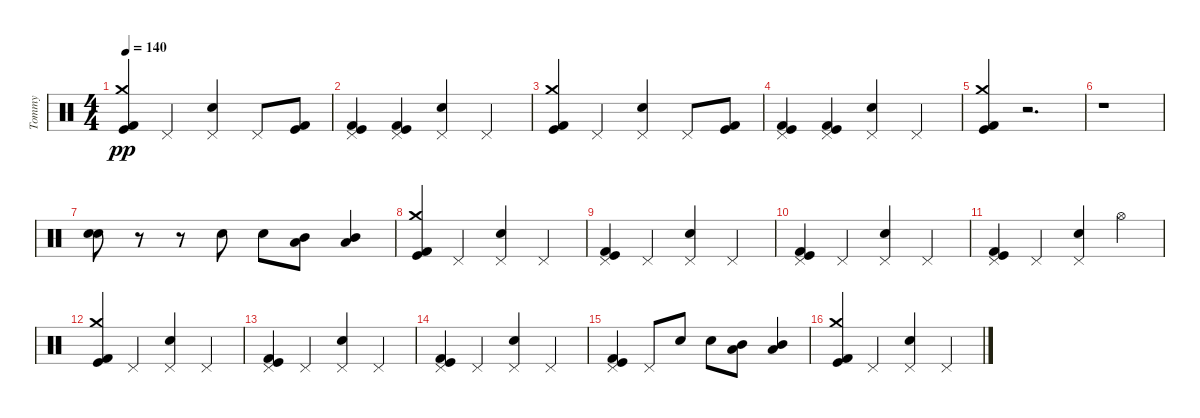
\track ("Tommy" "Tommy") {instrument percussion}
\staff {score}
\articulation defaults
\ts (4 4)
\tempo 140
\clef neutral
\ks c
("Kick (hit)" "Crash medium (hit)" "Kick (hit) 2").4{dy pp} "Pedal Hi-Hat (hit)".4 ("Pedal Hi-Hat (hit)" "Snare (hit) 2").4 "Pedal Hi-Hat (hit)".8 ("Kick (hit)" "Kick (hit) 2").8 |
("Pedal Hi-Hat (hit)" "Kick (hit)" "Kick (hit) 2").4 ("Pedal Hi-Hat (hit)" "Kick (hit)" "Kick (hit) 2").4 ("Snare (hit) 2" "Pedal Hi-Hat (hit)").4 "Pedal Hi-Hat (hit)".4 |
("Kick (hit)" "Crash medium (hit)" "Kick (hit) 2").4 "Pedal Hi-Hat (hit)".4 ("Pedal Hi-Hat (hit)" "Snare (hit) 2").4 "Pedal Hi-Hat (hit)".8 ("Kick (hit)" "Kick (hit) 2").8 |
("Pedal Hi-Hat (hit)" "Kick (hit)" "Kick (hit) 2").4 ("Pedal Hi-Hat (hit)" "Kick (hit)" "Kick (hit) 2").4 ("Snare (hit) 2" "Pedal Hi-Hat (hit)").4 "Pedal Hi-Hat (hit)".4 |
("Crash medium (hit)" "Kick (hit)" "Kick (hit) 2").4 r.2{d} |
r.1 |
("Snare (hit) 2" "Snare (hit) 2").8 r.8 r.8 "Snare (hit) 2".8 "Snare (hit) 2".8 ("Mid Tom (hit)" "Low Tom (hit)").8 ("Low Tom (hit)" "Mid Tom (hit)").4 |
("Kick (hit) 2" "Kick (hit)" "Crash medium (hit)").4 "Pedal Hi-Hat (hit)".4 ("Pedal Hi-Hat (hit)" "Snare (hit) 2").4 "Pedal Hi-Hat (hit)".4 |
("Pedal Hi-Hat (hit)" "Kick (hit) 2" "Kick (hit)").4 "Pedal Hi-Hat (hit)".4 ("Pedal Hi-Hat (hit)" "Snare (hit) 2").4 "Pedal Hi-Hat (hit)".4 |
("Pedal Hi-Hat (hit)" "Kick (hit) 2" "Kick (hit)").4 "Pedal Hi-Hat (hit)".4 ("Pedal Hi-Hat (hit)" "Snare (hit) 2").4 "Pedal Hi-Hat (hit)".4 |
("Pedal Hi-Hat (hit)" "Kick (hit) 2" "Kick (hit)").4 "Pedal Hi-Hat (hit)".4 ("Pedal Hi-Hat (hit)" "Snare (hit) 2").4 "Hi-Hat (open)".4 |
("Kick (hit) 2" "Kick (hit)" "Crash medium (hit)").4 "Pedal Hi-Hat (hit)".4 ("Pedal Hi-Hat (hit)" "Snare (hit) 2").4 "Pedal Hi-Hat (hit)".4 |
("Pedal Hi-Hat (hit)" "Kick (hit) 2" "Kick (hit)").4 "Pedal Hi-Hat (hit)".4 ("Pedal Hi-Hat (hit)" "Snare (hit) 2").4 "Pedal Hi-Hat (hit)".4 |
("Pedal Hi-Hat (hit)" "Kick (hit) 2" "Kick (hit)").4 "Pedal Hi-Hat (hit)".4 ("Pedal Hi-Hat (hit)" "Snare (hit) 2").4 "Pedal Hi-Hat (hit)".4 |
("Pedal Hi-Hat (hit)" "Kick (hit) 2" "Kick (hit)").4 "Pedal Hi-Hat (hit)".8 "Snare (hit) 2".8 "Snare (hit) 2".8 ("Low Tom (hit)" "Mid Tom (hit)").8 ("Low Tom (hit)" "Mid Tom (hit)").4 |
("Kick (hit) 2" "Kick (hit)" "Crash medium (hit)").4 "Pedal Hi-Hat (hit)".4 ("Pedal Hi-Hat (hit)" "Snare (hit) 2").4 "Pedal Hi-Hat (hit)".4
